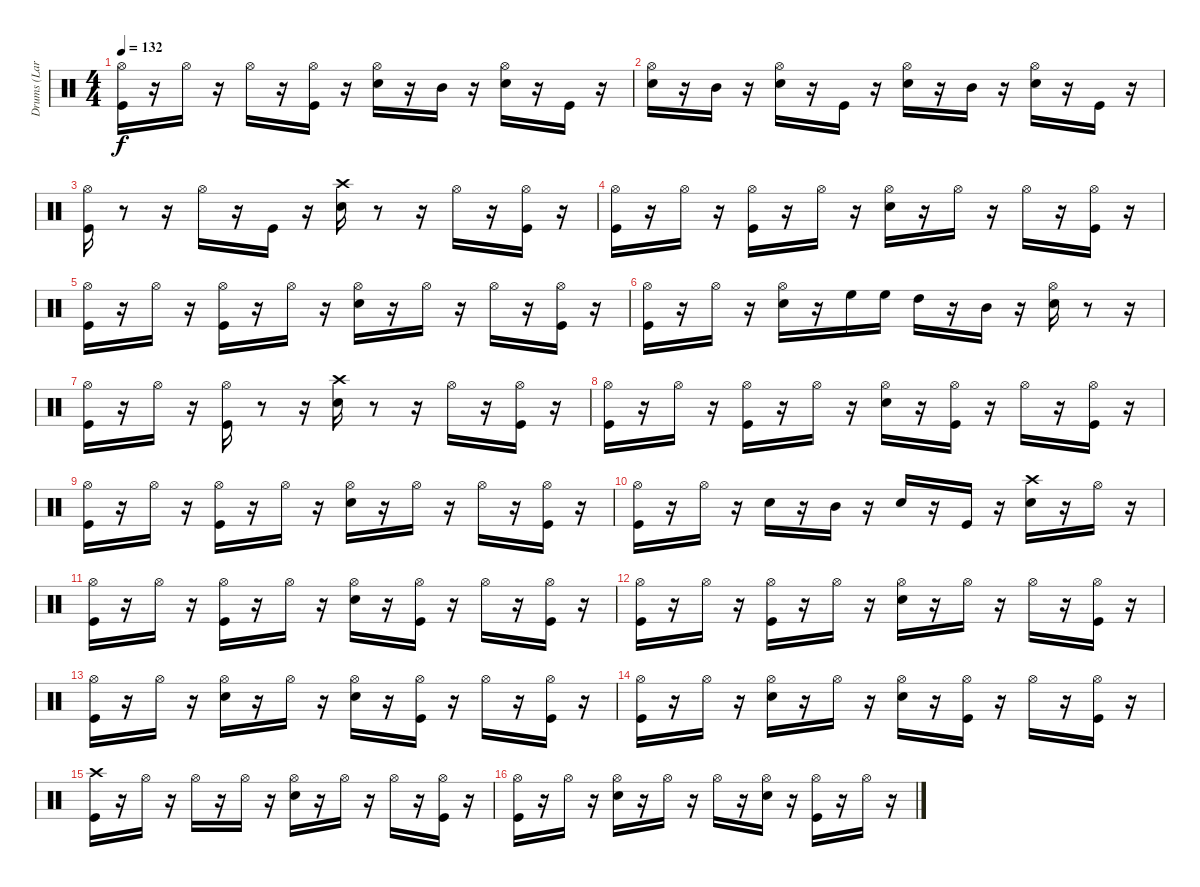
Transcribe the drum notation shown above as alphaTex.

\track ("Drums (Lars)" "Drums (Lar") {instrument percussion}
\staff {score}
\articulation defaults
\ts (4 4)
\tempo 132
\clef neutral
\ks c
("Kick (hit)" "Hi-Hat (open)").16{dy f} r.16 "Hi-Hat (open)".16 r.16 "Hi-Hat (open)".16 r.16 ("Kick (hit)" "Hi-Hat (open)").16 r.16 ("Snare (hit) 2" "Hi-Hat (open)").16 r.16 "Mid Tom (hit)".16 r.16 ("Snare (hit) 2" "Hi-Hat (open)").16 r.16 "Kick (hit)".16 r.16 |
("Snare (hit) 2" "Hi-Hat (open)").16 r.16 "Mid Tom (hit)".16 r.16 ("Snare (hit) 2" "Hi-Hat (open)").16 r.16 "Kick (hit)".16 r.16 ("Snare (hit) 2" "Hi-Hat (open)").16 r.16 "Mid Tom (hit)".16 r.16 ("Snare (hit) 2" "Hi-Hat (open)").16 r.16 "Kick (hit)".16 r.16 |
("Kick (hit)" "Hi-Hat (open)").16 r.8 r.16 "Hi-Hat (open)".16 r.16 "Kick (hit)".16 r.16 ("Snare (hit) 2" "Crash high (hit)").16 r.8 r.16 "Hi-Hat (open)".16 r.16 ("Kick (hit)" "Hi-Hat (open)").16 r.16 |
("Kick (hit)" "Hi-Hat (open)").16 r.16 "Hi-Hat (open)".16 r.16 ("Kick (hit)" "Hi-Hat (open)").16 r.16 "Hi-Hat (open)".16 r.16 ("Snare (hit) 2" "Hi-Hat (open)").16 r.16 "Hi-Hat (open)".16 r.16 "Hi-Hat (open)".16 r.16 ("Kick (hit)" "Hi-Hat (open)").16 r.16 |
("Kick (hit)" "Hi-Hat (open)").16 r.16 "Hi-Hat (open)".16 r.16 ("Kick (hit)" "Hi-Hat (open)").16 r.16 "Hi-Hat (open)".16 r.16 ("Snare (hit) 2" "Hi-Hat (open)").16 r.16 "Hi-Hat (open)".16 r.16 "Hi-Hat (open)".16 r.16 ("Kick (hit)" "Hi-Hat (open)").16 r.16 |
("Kick (hit)" "Hi-Hat (open)").16 r.16 "Hi-Hat (open)".16 r.16 ("Snare (hit) 2" "Hi-Hat (open)").16 r.16 "High Floor Tom (hit)".16 "High Floor Tom (hit)".16 "High Tom (hit)".16 r.16 "Mid Tom (hit)".16 r.16 ("Snare (hit) 2" "Hi-Hat (open)").16 r.8 r.16 |
("Kick (hit)" "Hi-Hat (open)").16 r.16 "Hi-Hat (open)".16 r.16 ("Kick (hit)" "Hi-Hat (open)").16 r.8 r.16 ("Snare (hit) 2" "Crash high (hit)").16 r.8 r.16 "Hi-Hat (open)".16 r.16 ("Kick (hit)" "Hi-Hat (open)").16 r.16 |
("Kick (hit)" "Hi-Hat (open)").16 r.16 "Hi-Hat (open)".16 r.16 ("Kick (hit)" "Hi-Hat (open)").16 r.16 "Hi-Hat (open)".16 r.16 ("Snare (hit) 2" "Hi-Hat (open)").16 r.16 ("Kick (hit)" "Hi-Hat (open)").16 r.16 "Hi-Hat (open)".16 r.16 ("Kick (hit)" "Hi-Hat (open)").16 r.16 |
("Kick (hit)" "Hi-Hat (open)").16 r.16 "Hi-Hat (open)".16 r.16 ("Kick (hit)" "Hi-Hat (open)").16 r.16 "Hi-Hat (open)".16 r.16 ("Snare (hit) 2" "Hi-Hat (open)").16 r.16 "Hi-Hat (open)".16 r.16 "Hi-Hat (open)".16 r.16 ("Kick (hit)" "Hi-Hat (open)").16 r.16 |
("Kick (hit)" "Hi-Hat (open)").16 r.16 "Hi-Hat (open)".16 r.16 "Snare (hit) 2".16 r.16 "Mid Tom (hit)".16 r.16 "Snare (hit) 2".16 r.16 "Kick (hit)".16 r.16 ("Snare (hit) 2" "Crash high (hit)").16 r.16 "Hi-Hat (open)".16 r.16 |
("Kick (hit)" "Hi-Hat (open)").16 r.16 "Hi-Hat (open)".16 r.16 ("Kick (hit)" "Hi-Hat (open)").16 r.16 "Hi-Hat (open)".16 r.16 ("Snare (hit) 2" "Hi-Hat (open)").16 r.16 ("Kick (hit)" "Hi-Hat (open)").16 r.16 "Hi-Hat (open)".16 r.16 ("Kick (hit)" "Hi-Hat (open)").16 r.16 |
("Kick (hit)" "Hi-Hat (open)").16 r.16 "Hi-Hat (open)".16 r.16 ("Kick (hit)" "Hi-Hat (open)").16 r.16 "Hi-Hat (open)".16 r.16 ("Snare (hit) 2" "Hi-Hat (open)").16 r.16 "Hi-Hat (open)".16 r.16 "Hi-Hat (open)".16 r.16 ("Kick (hit)" "Hi-Hat (open)").16 r.16 |
("Kick (hit)" "Hi-Hat (open)").16 r.16 "Hi-Hat (open)".16 r.16 ("Snare (hit) 2" "Hi-Hat (open)").16 r.16 "Hi-Hat (open)".16 r.16 ("Snare (hit) 2" "Hi-Hat (open)").16 r.16 ("Kick (hit)" "Hi-Hat (open)").16 r.16 "Hi-Hat (open)".16 r.16 ("Kick (hit)" "Hi-Hat (open)").16 r.16 |
("Kick (hit)" "Hi-Hat (open)").16 r.16 "Hi-Hat (open)".16 r.16 ("Snare (hit) 2" "Hi-Hat (open)").16 r.16 "Hi-Hat (open)".16 r.16 ("Snare (hit) 2" "Hi-Hat (open)").16 r.16 ("Kick (hit)" "Hi-Hat (open)").16 r.16 "Hi-Hat (open)".16 r.16 ("Kick (hit)" "Hi-Hat (open)").16 r.16 |
("Kick (hit)" "Crash high (hit)").16 r.16 "Hi-Hat (open)".16 r.16 "Hi-Hat (open)".16 r.16 "Hi-Hat (open)".16 r.16 ("Snare (hit) 2" "Hi-Hat (open)").16 r.16 "Hi-Hat (open)".16 r.16 "Hi-Hat (open)".16 r.16 ("Kick (hit)" "Hi-Hat (open)").16 r.16 |
("Kick (hit)" "Hi-Hat (open)").16 r.16 "Hi-Hat (open)".16 r.16 ("Snare (hit) 2" "Hi-Hat (open)").16 r.16 "Hi-Hat (open)".16 r.16 "Hi-Hat (open)".16 r.16 ("Snare (hit) 2" "Hi-Hat (open)").16 r.16 ("Kick (hit)" "Hi-Hat (open)").16 r.16 "Hi-Hat (open)".16 r.16
